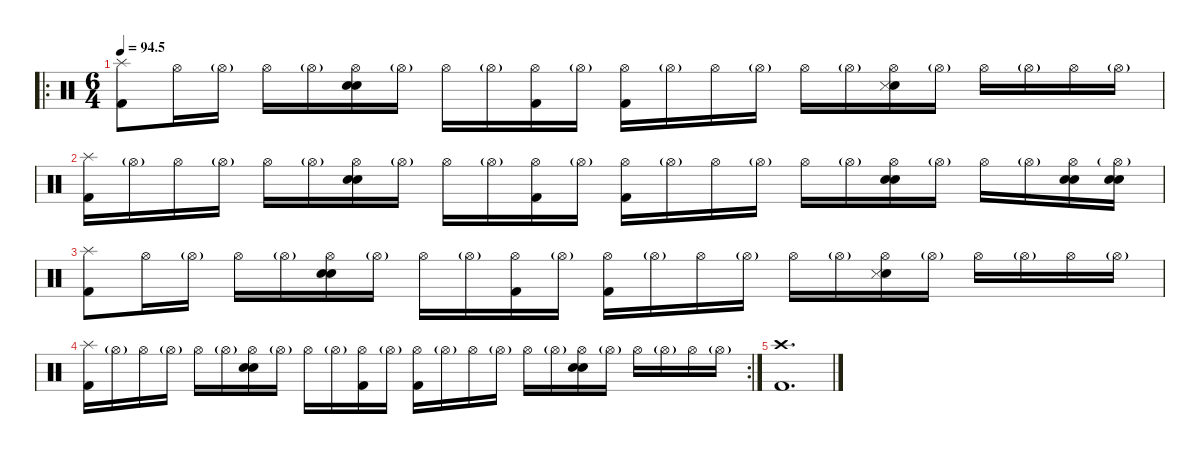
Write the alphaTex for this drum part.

\defaultSystemsLayout 4
\hideDynamics
\bracketExtendMode nobrackets
\singleTrackTrackNamePolicy hidden
\multiTrackTrackNamePolicy hidden
\firstSystemTrackNameMode fullname
\firstSystemTrackNameOrientation horizontal
\otherSystemsTrackNameOrientation horizontal
\track ("Drums" "drm.") {defaultSystemsLayout 2 instrument percussion}
\staff {score}
\articulation defaults
\ro
\ts (6 4)
\tempo
94.5
\accidentals auto
\clef neutral
\ottava regular
\simile none
\ks c
("Splash (hit)" "Kick (hit) 2").8{dy fff beam Down} "Hi-Hat (open)".16{dy mf beam Down} "Hi-Hat (open)"{g}.16{beam Down} "Hi-Hat (open)".16{beam Down} "Hi-Hat (open)"{g}.16{beam Down} ("Hi-Hat (open)" "Snare (hit) 2" "Metronome (bell)").16{beam Down} "Hi-Hat (open)"{g}.16{beam Down} "Hi-Hat (open)".16{beam Down} "Hi-Hat (open)"{g}.16{beam Down} ("Hi-Hat (open)" "Kick (hit) 2").16{beam Down} "Hi-Hat (open)"{g}.16{beam Down} ("Hi-Hat (open)" "Kick (hit) 2").16{beam Down} "Hi-Hat (open)"{g}.16{beam Down} "Hi-Hat (open)".16{beam Down} "Hi-Hat (open)"{g}.16{beam Down} "Hi-Hat (open)".16{beam Down} "Hi-Hat (open)"{g}.16{beam Down} ("Hi-Hat (open)" "Snare (hit) 2" "Metronome (hit)").16{beam Down} "Hi-Hat (open)"{g}.16{beam Down} "Hi-Hat (open)".16{beam Down} "Hi-Hat (open)"{g}.16{beam Down} "Hi-Hat (open)".16{beam Down} "Hi-Hat (open)"{g}.16{beam Down} |
("Splash (hit)" "Kick (hit) 2").16{dy fff beam Down} "Hi-Hat (open)"{g}.16{dy mf beam Down} "Hi-Hat (open)".16{beam Down} "Hi-Hat (open)"{g}.16{beam Down} "Hi-Hat (open)".16{beam Down} "Hi-Hat (open)"{g}.16{beam Down} ("Hi-Hat (open)" "Snare (hit) 2" "Metronome (bell)").16{beam Down} "Hi-Hat (open)"{g}.16{beam Down} "Hi-Hat (open)".16{beam Down} "Hi-Hat (open)"{g}.16{beam Down} ("Hi-Hat (open)" "Kick (hit) 2").16{beam Down} "Hi-Hat (open)"{g}.16{beam Down} ("Hi-Hat (open)" "Kick (hit) 2").16{beam Down} "Hi-Hat (open)"{g}.16{beam Down} "Hi-Hat (open)".16{beam Down} "Hi-Hat (open)"{g}.16{beam Down} "Hi-Hat (open)".16{beam Down} "Hi-Hat (open)"{g}.16{beam Down} ("Hi-Hat (open)" "Snare (hit) 2" "Metronome (bell)").16{beam Down} "Hi-Hat (open)"{g}.16{beam Down} "Hi-Hat (open)".16{beam Down} "Hi-Hat (open)"{g}.16{beam Down} ("Hi-Hat (open)" "Snare (hit) 2" "Metronome (bell)").16{beam Down} ("Hi-Hat (open)"{g} "Snare (hit) 2" "Metronome (bell)").16{dy f beam Down} |
("Splash (hit)" "Kick (hit) 2").8{dy fff beam Down} "Hi-Hat (open)".16{dy mf beam Down} "Hi-Hat (open)"{g}.16{beam Down} "Hi-Hat (open)".16{beam Down} "Hi-Hat (open)"{g}.16{beam Down} ("Hi-Hat (open)" "Snare (hit) 2" "Metronome (bell)").16{beam Down} "Hi-Hat (open)"{g}.16{beam Down} "Hi-Hat (open)".16{beam Down} "Hi-Hat (open)"{g}.16{beam Down} ("Hi-Hat (open)" "Kick (hit) 2").16{beam Down} "Hi-Hat (open)"{g}.16{beam Down} ("Hi-Hat (open)" "Kick (hit) 2").16{beam Down} "Hi-Hat (open)"{g}.16{beam Down} "Hi-Hat (open)".16{beam Down} "Hi-Hat (open)"{g}.16{beam Down} "Hi-Hat (open)".16{beam Down} "Hi-Hat (open)"{g}.16{beam Down} ("Hi-Hat (open)" "Snare (hit) 2" "Metronome (hit)").16{beam Down} "Hi-Hat (open)"{g}.16{beam Down} "Hi-Hat (open)".16{beam Down} "Hi-Hat (open)"{g}.16{beam Down} "Hi-Hat (open)".16{beam Down} "Hi-Hat (open)"{g}.16{beam Down} |
\rc 2
("Splash (hit)" "Kick (hit) 2").16{dy fff beam Down} "Hi-Hat (open)"{g}.16{dy mf beam Down} "Hi-Hat (open)".16{beam Down} "Hi-Hat (open)"{g}.16{beam Down} "Hi-Hat (open)".16{beam Down} "Hi-Hat (open)"{g}.16{beam Down} ("Hi-Hat (open)" "Snare (hit) 2" "Metronome (bell)").16{beam Down} "Hi-Hat (open)"{g}.16{beam Down} "Hi-Hat (open)".16{beam Down} "Hi-Hat (open)"{g}.16{beam Down} ("Hi-Hat (open)" "Kick (hit) 2").16{beam Down} "Hi-Hat (open)"{g}.16{beam Down} ("Hi-Hat (open)" "Kick (hit) 2").16{beam Down} "Hi-Hat (open)"{g}.16{beam Down} "Hi-Hat (open)".16{beam Down} "Hi-Hat (open)"{g}.16{beam Down} "Hi-Hat (open)".16{beam Down} "Hi-Hat (open)"{g}.16{beam Down} ("Hi-Hat (open)" "Snare (hit) 2" "Metronome (bell)").16{beam Down} "Hi-Hat (open)"{g}.16{beam Down} "Hi-Hat (open)".16{beam Down} "Hi-Hat (open)"{g}.16{beam Down} "Hi-Hat (open)".16{beam Down} "Hi-Hat (open)"{g}.16{beam Down} |
("Crash high (hit)" "Kick (hit) 2").1{d dy fff beam Down}
